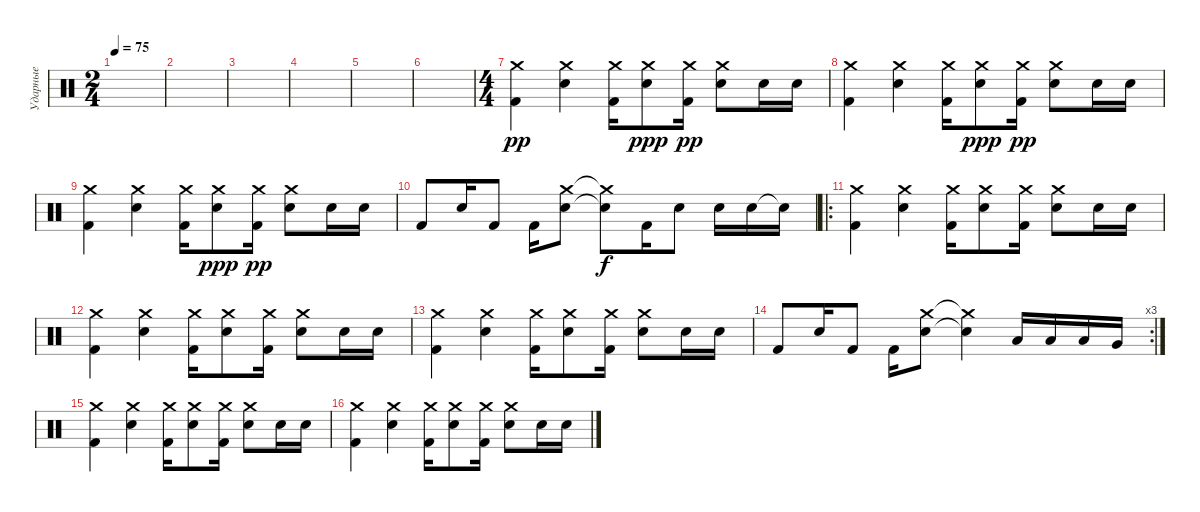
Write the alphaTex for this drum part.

\track ("Ударные" "Ударные") {instrument percussion}
\staff {score}
\articulation defaults
\ts (2 4)
\tempo 75
\clef neutral
\ks c
|
|
|
|
|
|
\ts (4 4)
("Kick (hit) 2" "Crash medium (hit)"{x}).4{dy pp} ("Electric Snare (hit)" "Crash medium (hit)"{x}).4 ("Kick (hit) 2" "Crash medium (hit)"{x}).16 ("Electric Snare (hit)" "Crash medium (hit)").8{dy ppp} ("Kick (hit) 2" "Crash medium (hit)"{x}).16{dy pp} ("Electric Snare (hit)" "Crash medium (hit)"{x}).8 "Electric Snare (hit)".16 "Electric Snare (hit)".16 |
("Kick (hit) 2" "Crash medium (hit)"{x}).4 ("Electric Snare (hit)" "Crash medium (hit)"{x}).4 ("Kick (hit) 2" "Crash medium (hit)"{x}).16 ("Electric Snare (hit)" "Crash medium (hit)").8{dy ppp} ("Kick (hit) 2" "Crash medium (hit)"{x}).16{dy pp} ("Electric Snare (hit)" "Crash medium (hit)"{x}).8 "Electric Snare (hit)".16 "Electric Snare (hit)".16 |
("Kick (hit) 2" "Crash medium (hit)"{x}).4 ("Electric Snare (hit)" "Crash medium (hit)"{x}).4 ("Kick (hit) 2" "Crash medium (hit)"{x}).16 ("Electric Snare (hit)" "Crash medium (hit)").8{dy ppp} ("Kick (hit) 2" "Crash medium (hit)"{x}).16{dy pp} ("Electric Snare (hit)" "Crash medium (hit)"{x}).8 "Electric Snare (hit)".16 "Electric Snare (hit)".16 |
"Kick (hit) 2".8 "Electric Snare (hit)".16 "Kick (hit) 2".8 "Kick (hit) 2".16 ("Electric Snare (hit)" "Crash medium (hit)").8 ("Electric Snare (hit)"{t} "Crash medium (hit)"{t}).8{dy f} "Kick (hit) 2".16 "Electric Snare (hit)".8 "Electric Snare (hit)".16 "Electric Snare (hit)".16 "Electric Snare (hit)"{t}.16 |
\ro
("Kick (hit) 2" "Crash medium (hit)").4 ("Electric Snare (hit)" "Crash medium (hit)").4 ("Kick (hit) 2" "Crash medium (hit)"{x}).16 ("Electric Snare (hit)" "Crash medium (hit)").8 ("Kick (hit) 2" "Crash medium (hit)"{x}).16 ("Electric Snare (hit)" "Crash medium (hit)").8 "Electric Snare (hit)".16 "Electric Snare (hit)".16 |
("Kick (hit) 2" "Crash medium (hit)").4 ("Electric Snare (hit)" "Crash medium (hit)").4 ("Kick (hit) 2" "Crash medium (hit)"{x}).16 ("Electric Snare (hit)" "Crash medium (hit)").8 ("Kick (hit) 2" "Crash medium (hit)"{x}).16 ("Electric Snare (hit)" "Crash medium (hit)").8 "Electric Snare (hit)".16 "Electric Snare (hit)".16 |
("Kick (hit) 2" "Crash medium (hit)").4 ("Electric Snare (hit)" "Crash medium (hit)").4 ("Kick (hit) 2" "Crash medium (hit)"{x}).16 ("Electric Snare (hit)" "Crash medium (hit)").8 ("Kick (hit) 2" "Crash medium (hit)"{x}).16 ("Electric Snare (hit)" "Crash medium (hit)").8 "Electric Snare (hit)".16 "Electric Snare (hit)".16 |
\rc 3 "Kick (hit) 2".8 "Electric Snare (hit)".16 "Kick (hit) 2".8 "Kick (hit) 2".16
("Electric Snare (hit)" "Crash medium (hit)").8 ("Electric Snare (hit)"{t} "Crash medium (hit)"{t}).4 "Low Tom (hit)".16 "Low Tom (hit)".16 "Low Tom (hit)".16 "Very Low Tom (hit)".16 |
("Kick (hit) 2" "Crash medium (hit)").4 ("Electric Snare (hit)" "Crash medium (hit)").4 ("Kick (hit) 2" "Crash medium (hit)"{x}).16 ("Electric Snare (hit)" "Crash medium (hit)").8 ("Kick (hit) 2" "Crash medium (hit)"{x}).16 ("Electric Snare (hit)" "Crash medium (hit)").8 "Electric Snare (hit)".16 "Electric Snare (hit)".16 |
("Kick (hit) 2" "Crash medium (hit)").4 ("Electric Snare (hit)" "Crash medium (hit)").4 ("Kick (hit) 2" "Crash medium (hit)"{x}).16 ("Electric Snare (hit)" "Crash medium (hit)").8 ("Kick (hit) 2" "Crash medium (hit)"{x}).16 ("Electric Snare (hit)" "Crash medium (hit)").8 "Electric Snare (hit)".16 "Electric Snare (hit)".16
